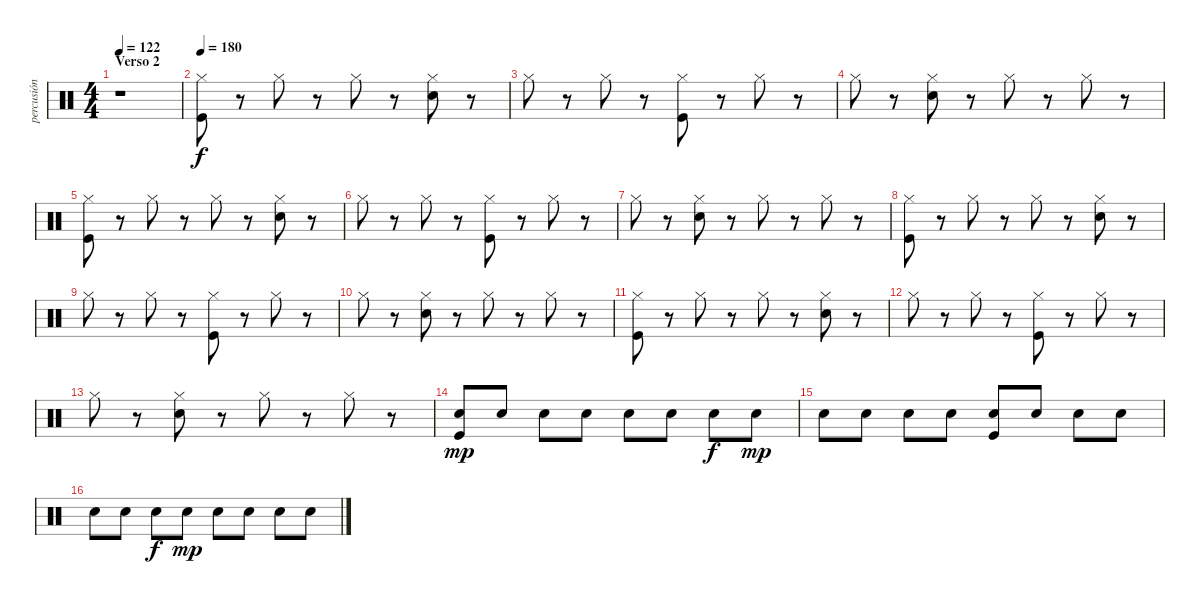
\track ("percusión" "percusión") {instrument percussion}
\staff {score}
\articulation defaults
\ts (4 4)
\section ("" "Verso 2")
\tempo 122
\clef neutral
\ks c
r.1{dy f} |
\tempo 180
("Hi-Hat (closed)" "Kick (hit)").8 r.8 "Hi-Hat (closed)".8 r.8 "Hi-Hat (closed)".8 r.8 ("Snare (hit) 2" "Hi-Hat (closed)").8 r.8 |
"Hi-Hat (closed)".8 r.8 "Hi-Hat (closed)".8 r.8 ("Kick (hit)" "Hi-Hat (closed)").8 r.8 "Hi-Hat (closed)".8 r.8 |
"Hi-Hat (closed)".8 r.8 ("Snare (hit) 2" "Hi-Hat (closed)").8 r.8 "Hi-Hat (closed)".8 r.8 "Hi-Hat (closed)".8 r.8 |
("Kick (hit)" "Hi-Hat (closed)").8 r.8 "Hi-Hat (closed)".8 r.8 "Hi-Hat (closed)".8 r.8 ("Snare (hit) 2" "Hi-Hat (closed)").8 r.8 |
"Hi-Hat (closed)".8 r.8 "Hi-Hat (closed)".8 r.8 ("Kick (hit)" "Hi-Hat (closed)").8 r.8 "Hi-Hat (closed)".8 r.8 |
"Hi-Hat (closed)".8 r.8 ("Snare (hit) 2" "Hi-Hat (closed)").8 r.8 "Hi-Hat (closed)".8 r.8 "Hi-Hat (closed)".8 r.8 |
("Hi-Hat (closed)" "Kick (hit)").8 r.8 "Hi-Hat (closed)".8 r.8 "Hi-Hat (closed)".8 r.8 ("Snare (hit) 2" "Hi-Hat (closed)").8 r.8 |
"Hi-Hat (closed)".8 r.8 "Hi-Hat (closed)".8 r.8 ("Kick (hit)" "Hi-Hat (closed)").8 r.8 "Hi-Hat (closed)".8 r.8 |
"Hi-Hat (closed)".8 r.8 ("Snare (hit) 2" "Hi-Hat (closed)").8 r.8 "Hi-Hat (closed)".8 r.8 "Hi-Hat (closed)".8 r.8 |
("Kick (hit)" "Hi-Hat (closed)").8 r.8 "Hi-Hat (closed)".8 r.8 "Hi-Hat (closed)".8 r.8 ("Snare (hit) 2" "Hi-Hat (closed)").8 r.8 |
"Hi-Hat (closed)".8 r.8 "Hi-Hat (closed)".8 r.8 ("Kick (hit)" "Hi-Hat (closed)").8 r.8 "Hi-Hat (closed)".8 r.8 |
"Hi-Hat (closed)".8 r.8 ("Snare (hit) 2" "Hi-Hat (closed)").8 r.8 "Hi-Hat (closed)".8 r.8 "Hi-Hat (closed)".8 r.8 |
("Snare (hit) 2" "Kick (hit)").8{dy mp} "Snare (hit) 2".8 "Snare (hit) 2".8 "Snare (hit) 2".8 "Snare (hit) 2".8 "Snare (hit) 2".8 "Snare (hit) 2".8{dy f} "Snare (hit) 2".8{dy mp} |
"Snare (hit) 2".8 "Snare (hit) 2".8 "Snare (hit) 2".8 "Snare (hit) 2".8 ("Kick (hit)" "Snare (hit) 2").8 "Snare (hit) 2".8 "Snare (hit) 2".8 "Snare (hit) 2".8 |
"Snare (hit) 2".8 "Snare (hit) 2".8 "Snare (hit) 2".8{dy f} "Snare (hit) 2".8{dy mp} "Snare (hit) 2".8 "Snare (hit) 2".8 "Snare (hit) 2".8 "Snare (hit) 2".8
